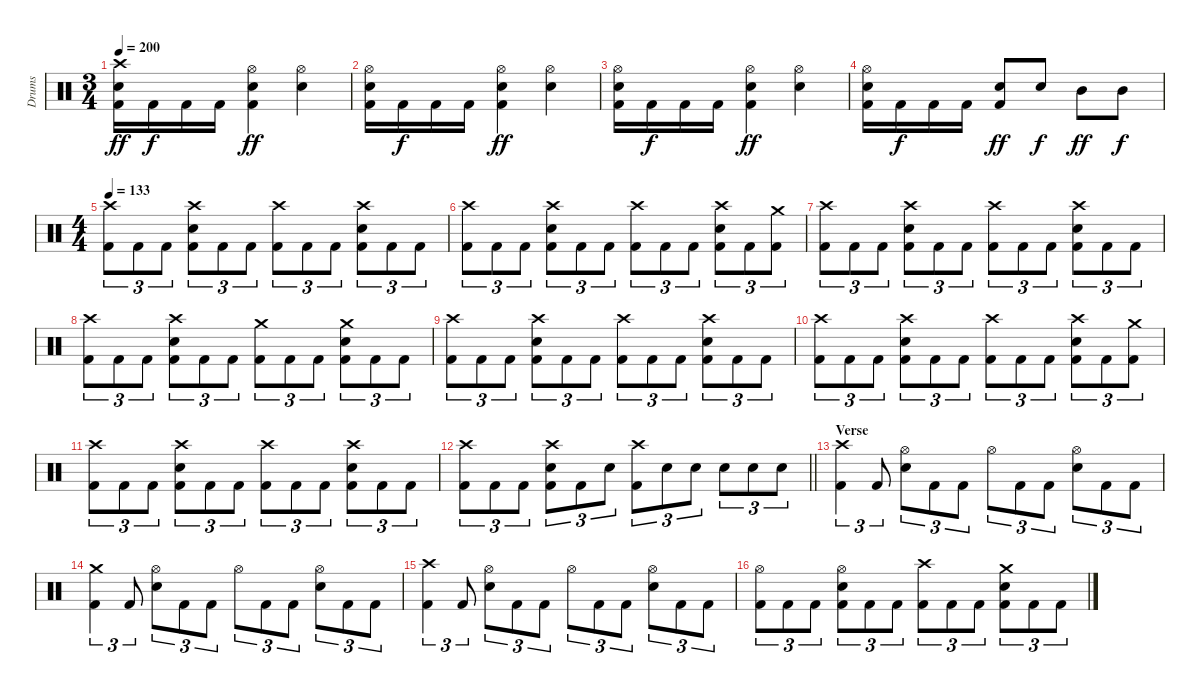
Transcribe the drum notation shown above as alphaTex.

\track ("Drums" "Drums") {instrument percussion}
\staff {score}
\articulation defaults
\ts (3 4)
\tempo 200
\clef neutral
\ks c
("Crash high (hit)" "Snare (hit) 2" "Kick (hit) 2").16{dy ff} "Kick (hit) 2".16{dy f} "Kick (hit) 2".16 "Kick (hit) 2".16 ("Hi-Hat (open)" "Snare (hit) 2" "Kick (hit) 2").4{dy ff} ("Hi-Hat (open)" "Snare (hit) 2").4 |
("Hi-Hat (open)" "Snare (hit) 2" "Kick (hit) 2").16 "Kick (hit) 2".16{dy f} "Kick (hit) 2".16 "Kick (hit) 2".16 ("Hi-Hat (open)" "Snare (hit) 2" "Kick (hit) 2").4{dy ff} ("Hi-Hat (open)" "Snare (hit) 2").4 |
("Hi-Hat (open)" "Snare (hit) 2" "Kick (hit) 2").16 "Kick (hit) 2".16{dy f} "Kick (hit) 2".16 "Kick (hit) 2".16 ("Hi-Hat (open)" "Snare (hit) 2" "Kick (hit) 2").4{dy ff} ("Hi-Hat (open)" "Snare (hit) 2").4 |
("Hi-Hat (open)" "Snare (hit) 2" "Kick (hit) 2").16 "Kick (hit) 2".16{dy f} "Kick (hit) 2".16 "Kick (hit) 2".16 ("Snare (hit) 2" "Kick (hit) 2").8{dy ff} "Snare (hit) 2".8{dy f} "Mid Tom (hit)".8{dy ff} "Mid Tom (hit)".8{dy f} |
\ts (4 4)
\tempo 133
("Crash high (hit)" "Kick (hit) 2").8{tu (3 2)} "Kick (hit) 2".8{tu (3 2)} "Kick (hit) 2".8{tu (3 2)} ("Crash high (hit)" "Snare (hit) 2" "Kick (hit) 2").8{tu (3 2)} "Kick (hit) 2".8{tu (3 2)} "Kick (hit) 2".8{tu (3 2)} ("Crash high (hit)" "Kick (hit) 2").8{tu (3 2)} "Kick (hit) 2".8{tu (3 2)} "Kick (hit) 2".8{tu (3 2)} ("Crash high (hit)" "Snare (hit) 2" "Kick (hit) 2").8{tu (3 2)} "Kick (hit) 2".8{tu (3 2)} "Kick (hit) 2".8{tu (3 2)} |
("Crash high (hit)" "Kick (hit) 2").8{tu (3 2)} "Kick (hit) 2".8{tu (3 2)} "Kick (hit) 2".8{tu (3 2)} ("Crash high (hit)" "Snare (hit) 2" "Kick (hit) 2").8{tu (3 2)} "Kick (hit) 2".8{tu (3 2)} "Kick (hit) 2".8{tu (3 2)} ("Crash high (hit)" "Kick (hit) 2").8{tu (3 2)} "Kick (hit) 2".8{tu (3 2)} "Kick (hit) 2".8{tu (3 2)} ("Crash high (hit)" "Snare (hit) 2" "Kick (hit) 2").8{tu (3 2)} "Kick (hit) 2".8{tu (3 2)} ("Crash medium (hit)" "Kick (hit) 2").8{tu (3 2)} |
("Crash high (hit)" "Kick (hit) 2").8{tu (3 2)} "Kick (hit) 2".8{tu (3 2)} "Kick (hit) 2".8{tu (3 2)} ("Crash high (hit)" "Snare (hit) 2" "Kick (hit) 2").8{tu (3 2)} "Kick (hit) 2".8{tu (3 2)} "Kick (hit) 2".8{tu (3 2)} ("Crash high (hit)" "Kick (hit) 2").8{tu (3 2)} "Kick (hit) 2".8{tu (3 2)} "Kick (hit) 2".8{tu (3 2)} ("Crash high (hit)" "Snare (hit) 2" "Kick (hit) 2").8{tu (3 2)} "Kick (hit) 2".8{tu (3 2)} "Kick (hit) 2".8{tu (3 2)} |
("Crash high (hit)" "Kick (hit) 2").8{tu (3 2)} "Kick (hit) 2".8{tu (3 2)} "Kick (hit) 2".8{tu (3 2)} ("Crash high (hit)" "Snare (hit) 2" "Kick (hit) 2").8{tu (3 2)} "Kick (hit) 2".8{tu (3 2)} "Kick (hit) 2".8{tu (3 2)} ("Crash medium (hit)" "Kick (hit) 2").8{tu (3 2)} "Kick (hit) 2".8{tu (3 2)} "Kick (hit) 2".8{tu (3 2)} ("Crash medium (hit)" "Snare (hit) 2" "Kick (hit) 2").8{tu (3 2)} "Kick (hit) 2".8{tu (3 2)} "Kick (hit) 2".8{tu (3 2)} |
("Crash high (hit)" "Kick (hit) 2").8{tu (3 2)} "Kick (hit) 2".8{tu (3 2)} "Kick (hit) 2".8{tu (3 2)} ("Crash high (hit)" "Snare (hit) 2" "Kick (hit) 2").8{tu (3 2)} "Kick (hit) 2".8{tu (3 2)} "Kick (hit) 2".8{tu (3 2)} ("Crash high (hit)" "Kick (hit) 2").8{tu (3 2)} "Kick (hit) 2".8{tu (3 2)} "Kick (hit) 2".8{tu (3 2)} ("Crash high (hit)" "Snare (hit) 2" "Kick (hit) 2").8{tu (3 2)} "Kick (hit) 2".8{tu (3 2)} "Kick (hit) 2".8{tu (3 2)} |
("Crash high (hit)" "Kick (hit) 2").8{tu (3 2)} "Kick (hit) 2".8{tu (3 2)} "Kick (hit) 2".8{tu (3 2)} ("Crash high (hit)" "Snare (hit) 2" "Kick (hit) 2").8{tu (3 2)} "Kick (hit) 2".8{tu (3 2)} "Kick (hit) 2".8{tu (3 2)} ("Crash high (hit)" "Kick (hit) 2").8{tu (3 2)} "Kick (hit) 2".8{tu (3 2)} "Kick (hit) 2".8{tu (3 2)} ("Crash high (hit)" "Snare (hit) 2" "Kick (hit) 2").8{tu (3 2)} "Kick (hit) 2".8{tu (3 2)} ("Crash medium (hit)" "Kick (hit) 2").8{tu (3 2)} |
("Crash high (hit)" "Kick (hit) 2").8{tu (3 2)} "Kick (hit) 2".8{tu (3 2)} "Kick (hit) 2".8{tu (3 2)} ("Crash high (hit)" "Snare (hit) 2" "Kick (hit) 2").8{tu (3 2)} "Kick (hit) 2".8{tu (3 2)} "Kick (hit) 2".8{tu (3 2)} ("Crash high (hit)" "Kick (hit) 2").8{tu (3 2)} "Kick (hit) 2".8{tu (3 2)} "Kick (hit) 2".8{tu (3 2)} ("Crash high (hit)" "Snare (hit) 2" "Kick (hit) 2").8{tu (3 2)} "Kick (hit) 2".8{tu (3 2)} "Kick (hit) 2".8{tu (3 2)} |
\barLineRight lightlight
("Crash high (hit)" "Kick (hit) 2").8{tu (3 2)} "Kick (hit) 2".8{tu (3 2)} "Kick (hit) 2".8{tu (3 2)} ("Crash high (hit)" "Snare (hit) 2" "Kick (hit) 2").8{tu (3 2)} "Kick (hit) 2".8{tu (3 2)} "Snare (hit) 2".8{tu (3 2)} ("Crash high (hit)" "Kick (hit) 2").8{tu (3 2)} "Snare (hit) 2".8{tu (3 2)} "Snare (hit) 2".8{tu (3 2)} "Snare (hit) 2".8{tu (3 2)} "Snare (hit) 2".8{tu (3 2)} "Snare (hit) 2".8{tu (3 2)} |
\section ("" "Verse")
("Crash high (hit)" "Kick (hit) 2").4{tu (3 2)} "Kick (hit) 2".8{tu (3 2)} ("Hi-Hat (open)" "Snare (hit) 2").8{tu (3 2)} "Kick (hit) 2".8{tu (3 2)} "Kick (hit) 2".8{tu (3 2)} "Hi-Hat (open)".8{tu (3 2)} "Kick (hit) 2".8{tu (3 2)} "Kick (hit) 2".8{tu (3 2)} ("Hi-Hat (open)" "Snare (hit) 2").8{tu (3 2)} "Kick (hit) 2".8{tu (3 2)} "Kick (hit) 2".8{tu (3 2)} |
("Crash medium (hit)" "Kick (hit) 2").4{tu (3 2)} "Kick (hit) 2".8{tu (3 2)} ("Hi-Hat (open)" "Snare (hit) 2").8{tu (3 2)} "Kick (hit) 2".8{tu (3 2)} "Kick (hit) 2".8{tu (3 2)} "Hi-Hat (open)".8{tu (3 2)} "Kick (hit) 2".8{tu (3 2)} "Kick (hit) 2".8{tu (3 2)} ("Hi-Hat (open)" "Snare (hit) 2").8{tu (3 2)} "Kick (hit) 2".8{tu (3 2)} "Kick (hit) 2".8{tu (3 2)} |
("Crash high (hit)" "Kick (hit) 2").4{tu (3 2)} "Kick (hit) 2".8{tu (3 2)} ("Hi-Hat (open)" "Snare (hit) 2").8{tu (3 2)} "Kick (hit) 2".8{tu (3 2)} "Kick (hit) 2".8{tu (3 2)} "Hi-Hat (open)".8{tu (3 2)} "Kick (hit) 2".8{tu (3 2)} "Kick (hit) 2".8{tu (3 2)} ("Hi-Hat (open)" "Snare (hit) 2").8{tu (3 2)} "Kick (hit) 2".8{tu (3 2)} "Kick (hit) 2".8{tu (3 2)} |
("Hi-Hat (open)" "Kick (hit) 2").8{tu (3 2)} "Kick (hit) 2".8{tu (3 2)} "Kick (hit) 2".8{tu (3 2)} ("Hi-Hat (open)" "Snare (hit) 2" "Kick (hit) 2").8{tu (3 2)} "Kick (hit) 2".8{tu (3 2)} "Kick (hit) 2".8{tu (3 2)} ("Crash high (hit)" "Kick (hit) 2").8{tu (3 2)} "Kick (hit) 2".8{tu (3 2)} "Kick (hit) 2".8{tu (3 2)} ("Crash medium (hit)" "Snare (hit) 2" "Kick (hit) 2").8{tu (3 2)} "Kick (hit) 2".8{tu (3 2)} "Kick (hit) 2".8{tu (3 2)}
